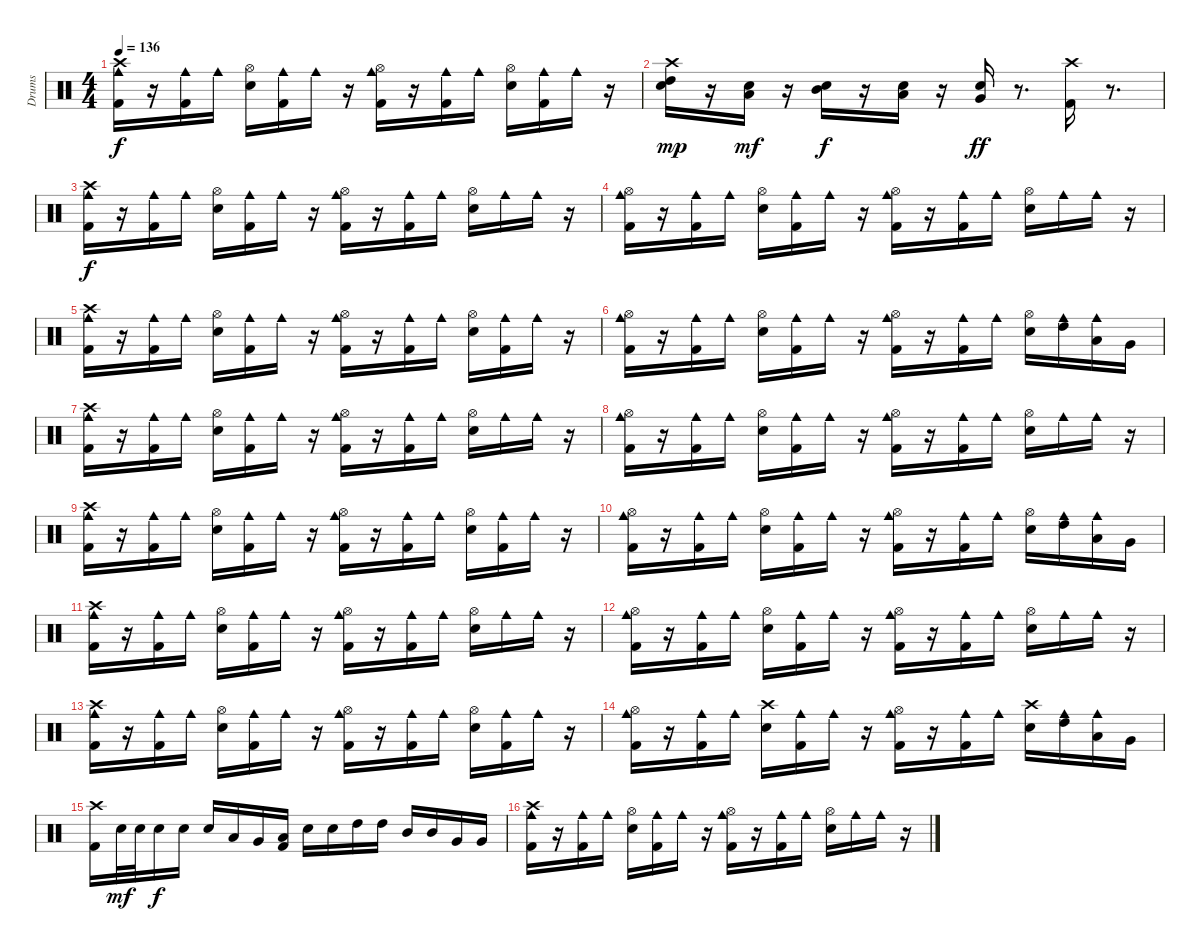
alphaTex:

\track ("Drums" "Drums") {instrument percussion}
\staff {score}
\articulation defaults
\ts (4 4)
\tempo 136
\clef neutral
\ks c
("Kick (hit) 2" "Cowbell medium (hit)" "Crash high (hit)").16{dy f} r.16 ("Kick (hit) 2" "Cowbell medium (hit)").16 "Cowbell medium (hit)".16 ("Metronome (bell)" "Hi-Hat (open)").16 ("Cowbell medium (hit)" "Kick (hit) 2").16 "Cowbell medium (hit)".16 r.16 ("Cowbell medium (hit)" "Kick (hit) 2" "Hi-Hat (open)").16 r.16 ("Cowbell medium (hit)" "Kick (hit) 2").16 "Cowbell medium (hit)".16 ("Metronome (bell)" "Hi-Hat (open)").16 ("Cowbell medium (hit)" "Kick (hit) 2").16 "Cowbell medium (hit)".16 r.16 |
("Crash high (hit)" "Metronome (bell)" "High Tom (hit)").16{dy mp} r.16 ("Low Floor Tom (hit)" "Metronome (bell)").16{dy mf} r.16 ("Metronome (bell)" "Mid Tom (hit)").16{dy f} r.16 ("Metronome (bell)" "Low Floor Tom (hit)").16 r.16 ("Metronome (bell)" "Very Low Tom (hit)").16{dy ff} r.8{d} ("Kick (hit) 2" "Crash high (hit)").16 r.8{d} |
("Cowbell medium (hit)" "Kick (hit) 2" "Crash high (hit)").16{dy f} r.16 ("Cowbell medium (hit)" "Kick (hit) 2").16 "Cowbell medium (hit)".16 ("Metronome (bell)" "Hi-Hat (open)").16 ("Cowbell medium (hit)" "Kick (hit) 2").16 "Cowbell medium (hit)".16 r.16 ("Kick (hit) 2" "Cowbell medium (hit)" "Hi-Hat (open)").16 r.16 ("Cowbell medium (hit)" "Kick (hit) 2").16 "Cowbell medium (hit)".16 ("Metronome (bell)" "Hi-Hat (open)").16 "Cowbell medium (hit)".16 "Cowbell medium (hit)".16 r.16 |
("Kick (hit) 2" "Cowbell medium (hit)" "Hi-Hat (open)").16 r.16 ("Kick (hit) 2" "Cowbell medium (hit)").16 "Cowbell medium (hit)".16 ("Metronome (bell)" "Hi-Hat (open)").16 ("Cowbell medium (hit)" "Kick (hit) 2").16 "Cowbell medium (hit)".16 r.16 ("Kick (hit) 2" "Cowbell medium (hit)" "Hi-Hat (open)").16 r.16 ("Kick (hit) 2" "Cowbell medium (hit)").16 "Cowbell medium (hit)".16 ("Metronome (bell)" "Hi-Hat (open)").16 "Cowbell medium (hit)".16 "Cowbell medium (hit)".16 r.16 |
("Cowbell medium (hit)" "Kick (hit) 2" "Crash high (hit)").16 r.16 ("Cowbell medium (hit)" "Kick (hit) 2").16 "Cowbell medium (hit)".16 ("Metronome (bell)" "Hi-Hat (open)").16 ("Cowbell medium (hit)" "Kick (hit) 2").16 "Cowbell medium (hit)".16 r.16 ("Kick (hit) 2" "Cowbell medium (hit)" "Hi-Hat (open)").16 r.16 ("Cowbell medium (hit)" "Kick (hit) 2").16 "Cowbell medium (hit)".16 ("Metronome (bell)" "Hi-Hat (open)").16 ("Cowbell medium (hit)" "Kick (hit) 2").16 "Cowbell medium (hit)".16 r.16 |
("Kick (hit) 2" "Cowbell medium (hit)" "Hi-Hat (open)").16 r.16 ("Kick (hit) 2" "Cowbell medium (hit)").16 "Cowbell medium (hit)".16 ("Metronome (bell)" "Hi-Hat (open)").16 ("Cowbell medium (hit)" "Kick (hit) 2").16 "Cowbell medium (hit)".16 r.16 ("Kick (hit) 2" "Cowbell medium (hit)" "Hi-Hat (open)").16 r.16 ("Kick (hit) 2" "Cowbell medium (hit)").16 "Cowbell medium (hit)".16 ("Metronome (bell)" "Hi-Hat (open)").16 ("Cowbell medium (hit)" "High Tom (hit)").16 ("Cowbell medium (hit)" "Low Tom (hit)").16 "Very Low Tom (hit)".16 |
("Cowbell medium (hit)" "Kick (hit) 2" "Crash high (hit)").16 r.16 ("Cowbell medium (hit)" "Kick (hit) 2").16 "Cowbell medium (hit)".16 ("Metronome (bell)" "Hi-Hat (open)").16 ("Cowbell medium (hit)" "Kick (hit) 2").16 "Cowbell medium (hit)".16 r.16 ("Kick (hit) 2" "Cowbell medium (hit)" "Hi-Hat (open)").16 r.16 ("Cowbell medium (hit)" "Kick (hit) 2").16 "Cowbell medium (hit)".16 ("Metronome (bell)" "Hi-Hat (open)").16 "Cowbell medium (hit)".16 "Cowbell medium (hit)".16 r.16 |
("Kick (hit) 2" "Cowbell medium (hit)" "Hi-Hat (open)").16 r.16 ("Kick (hit) 2" "Cowbell medium (hit)").16 "Cowbell medium (hit)".16 ("Metronome (bell)" "Hi-Hat (open)").16 ("Cowbell medium (hit)" "Kick (hit) 2").16 "Cowbell medium (hit)".16 r.16 ("Kick (hit) 2" "Cowbell medium (hit)" "Hi-Hat (open)").16 r.16 ("Kick (hit) 2" "Cowbell medium (hit)").16 "Cowbell medium (hit)".16 ("Metronome (bell)" "Hi-Hat (open)").16 "Cowbell medium (hit)".16 "Cowbell medium (hit)".16 r.16 |
("Cowbell medium (hit)" "Kick (hit) 2" "Crash high (hit)").16 r.16 ("Cowbell medium (hit)" "Kick (hit) 2").16 "Cowbell medium (hit)".16 ("Metronome (bell)" "Hi-Hat (open)").16 ("Cowbell medium (hit)" "Kick (hit) 2").16 "Cowbell medium (hit)".16 r.16 ("Kick (hit) 2" "Cowbell medium (hit)" "Hi-Hat (open)").16 r.16 ("Cowbell medium (hit)" "Kick (hit) 2").16 "Cowbell medium (hit)".16 ("Metronome (bell)" "Hi-Hat (open)").16 ("Cowbell medium (hit)" "Kick (hit) 2").16 "Cowbell medium (hit)".16 r.16 |
("Kick (hit) 2" "Cowbell medium (hit)" "Hi-Hat (open)").16 r.16 ("Kick (hit) 2" "Cowbell medium (hit)").16 "Cowbell medium (hit)".16 ("Metronome (bell)" "Hi-Hat (open)").16 ("Cowbell medium (hit)" "Kick (hit) 2").16 "Cowbell medium (hit)".16 r.16 ("Kick (hit) 2" "Cowbell medium (hit)" "Hi-Hat (open)").16 r.16 ("Kick (hit) 2" "Cowbell medium (hit)").16 "Cowbell medium (hit)".16 ("Metronome (bell)" "Hi-Hat (open)").16 ("Cowbell medium (hit)" "High Tom (hit)").16 ("Cowbell medium (hit)" "Low Tom (hit)").16 "Very Low Tom (hit)".16 |
("Cowbell medium (hit)" "Kick (hit) 2" "Crash high (hit)").16 r.16 ("Cowbell medium (hit)" "Kick (hit) 2").16 "Cowbell medium (hit)".16 ("Metronome (bell)" "Hi-Hat (open)").16 ("Cowbell medium (hit)" "Kick (hit) 2").16 "Cowbell medium (hit)".16 r.16 ("Kick (hit) 2" "Cowbell medium (hit)" "Hi-Hat (open)").16 r.16 ("Cowbell medium (hit)" "Kick (hit) 2").16 "Cowbell medium (hit)".16 ("Metronome (bell)" "Hi-Hat (open)").16 "Cowbell medium (hit)".16 "Cowbell medium (hit)".16 r.16 |
("Kick (hit) 2" "Cowbell medium (hit)" "Hi-Hat (open)").16 r.16 ("Kick (hit) 2" "Cowbell medium (hit)").16 "Cowbell medium (hit)".16 ("Metronome (bell)" "Hi-Hat (open)").16 ("Cowbell medium (hit)" "Kick (hit) 2").16 "Cowbell medium (hit)".16 r.16 ("Kick (hit) 2" "Cowbell medium (hit)" "Hi-Hat (open)").16 r.16 ("Kick (hit) 2" "Cowbell medium (hit)").16 "Cowbell medium (hit)".16 ("Metronome (bell)" "Hi-Hat (open)").16 "Cowbell medium (hit)".16 "Cowbell medium (hit)".16 r.16 |
("Cowbell medium (hit)" "Kick (hit) 2" "Crash high (hit)").16 r.16 ("Cowbell medium (hit)" "Kick (hit) 2").16 "Cowbell medium (hit)".16 ("Metronome (bell)" "Hi-Hat (open)").16 ("Cowbell medium (hit)" "Kick (hit) 2").16 "Cowbell medium (hit)".16 r.16 ("Kick (hit) 2" "Cowbell medium (hit)" "Hi-Hat (open)").16 r.16 ("Cowbell medium (hit)" "Kick (hit) 2").16 "Cowbell medium (hit)".16 ("Metronome (bell)" "Hi-Hat (open)").16 ("Cowbell medium (hit)" "Kick (hit) 2").16 "Cowbell medium (hit)".16 r.16 |
("Kick (hit) 2" "Cowbell medium (hit)" "Hi-Hat (open)").16 r.16 ("Kick (hit) 2" "Cowbell medium (hit)").16 "Cowbell medium (hit)".16 ("Metronome (bell)" "Crash high (hit)").16 ("Cowbell medium (hit)" "Kick (hit) 2").16 "Cowbell medium (hit)".16 r.16 ("Kick (hit) 2" "Cowbell medium (hit)" "Hi-Hat (open)").16 r.16 ("Kick (hit) 2" "Cowbell medium (hit)").16 "Cowbell medium (hit)".16 ("Metronome (bell)" "Crash high (hit)").16 ("Cowbell medium (hit)" "High Tom (hit)").16 ("Cowbell medium (hit)" "Low Tom (hit)").16 "Very Low Tom (hit)".16 |
("Crash high (hit)" "Kick (hit) 2").16 "Metronome (bell)".32{dy mf} "Metronome (bell)".32 "Metronome (bell)".16{dy f} "Metronome (bell)".16 "Metronome (bell)".16 "Low Tom (hit)".16 "Very Low Tom (hit)".16 ("Kick (hit) 2" "Low Floor Tom (hit)").16 "Metronome (bell)".16 "Metronome (bell)".16 "High Tom (hit)".16 "High Tom (hit)".16 "Mid Tom (hit)".16 "Mid Tom (hit)".16 "Very Low Tom (hit)".16 "Very Low Tom (hit)".16 |
("Cowbell medium (hit)" "Kick (hit) 2" "Crash high (hit)").16 r.16 ("Cowbell medium (hit)" "Kick (hit) 2").16 "Cowbell medium (hit)".16 ("Metronome (bell)" "Hi-Hat (open)").16 ("Cowbell medium (hit)" "Kick (hit) 2").16 "Cowbell medium (hit)".16 r.16 ("Kick (hit) 2" "Cowbell medium (hit)" "Hi-Hat (open)").16 r.16 ("Cowbell medium (hit)" "Kick (hit) 2").16 "Cowbell medium (hit)".16 ("Metronome (bell)" "Hi-Hat (open)").16 "Cowbell medium (hit)".16 "Cowbell medium (hit)".16 r.16
